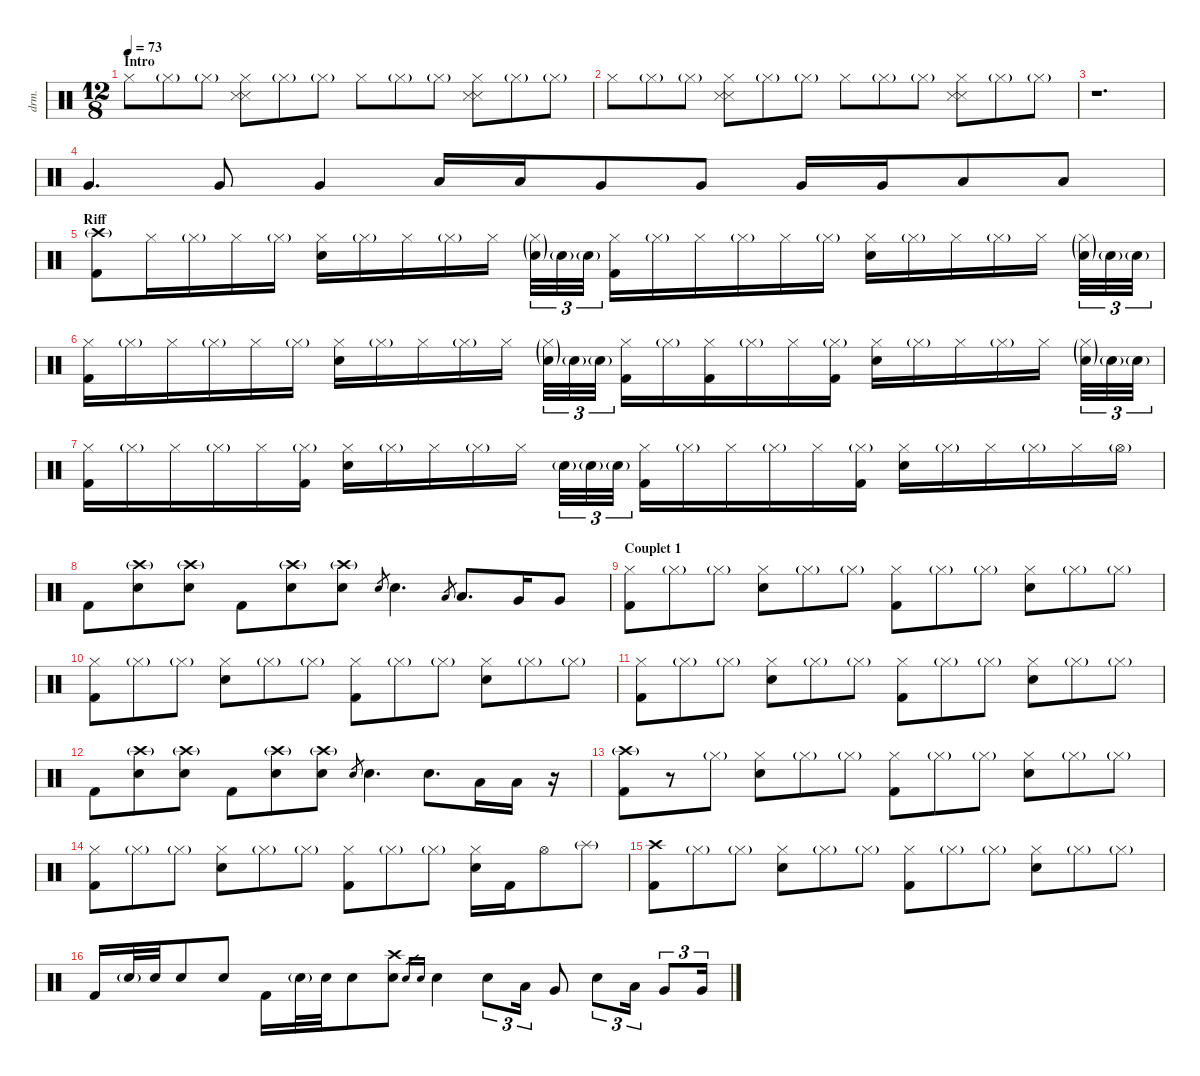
\defaultSystemsLayout 4
\hideDynamics
\bracketExtendMode nobrackets
\otherSystemsTrackNameOrientation horizontal
\track ("Drums" "drm.") {instrument percussion}
\staff {score}
\articulation defaults
\ts (12 8)
\section ("" "Intro")
\tempo 73
\clef neutral
\ks c "Hi-Hat (closed)".8{dy f beam Down} "Hi-Hat (closed)"{g}.8{beam Down} "Hi-Hat (closed)"{g}.8{beam Down}
("Hi-Hat (closed)" "Snare (side stick) 3" "Metronome (hit)").8{beam Down} "Hi-Hat (closed)"{g}.8{beam Down} "Hi-Hat (closed)"{g}.8{beam Down} "Hi-Hat (closed)".8{beam Down} "Hi-Hat (closed)"{g}.8{beam Down} "Hi-Hat (closed)"{g}.8{beam Down} ("Hi-Hat (closed)" "Snare (side stick) 3" "Metronome (hit)").8{beam Down} "Hi-Hat (closed)"{g}.8{beam Down} "Hi-Hat (closed)"{g}.8{beam Down} |
"Hi-Hat (closed)".8{beam Down} "Hi-Hat (closed)"{g}.8{beam Down} "Hi-Hat (closed)"{g}.8{beam Down} ("Hi-Hat (closed)" "Snare (side stick) 3" "Metronome (hit)").8{beam Down} "Hi-Hat (closed)"{g}.8{beam Down} "Hi-Hat (closed)"{g}.8{beam Down} "Hi-Hat (closed)".8{beam Down} "Hi-Hat (closed)"{g}.8{beam Down} "Hi-Hat (closed)"{g}.8{beam Down} ("Hi-Hat (closed)" "Snare (side stick) 3" "Metronome (hit)").8{beam Down} "Hi-Hat (closed)"{g}.8{beam Down} "Hi-Hat (closed)"{g}.8{beam Down} |
r.1{d beam Down} |
"Very Low Tom (hit)".4{d beam Up} "Very Low Tom (hit)".8{beam Up} "Very Low Tom (hit)".4{beam Up} "Low Tom (hit)".16{beam Up} "Low Tom (hit)".16{beam Up} "Very Low Tom (hit)".8{beam Up} "Very Low Tom (hit)".8{beam Up} "Very Low Tom (hit)".16{beam Up} "Very Low Tom (hit)".16{beam Up} "Low Floor Tom (hit)".8{beam Up} "Low Floor Tom (hit)".8{beam Up} |
\section ("" "Riff")
("Crash high (hit)"{g} "Kick (hit) 2").8{beam Down} "Hi-Hat (closed)".16{beam Down} "Hi-Hat (closed)"{g}.16{beam Down} "Hi-Hat (closed)".16{beam Down} "Hi-Hat (closed)"{g}.16{beam Down} ("Hi-Hat (closed)" "Snare (hit) 2").16{beam Down} "Hi-Hat (closed)"{g}.16{beam Down} "Hi-Hat (closed)".16{beam Down} "Hi-Hat (closed)"{g}.16{beam Down} "Hi-Hat (closed)".16{beam Down} ("Hi-Hat (closed)"{g} "Snare (hit) 2"{g}).32{tu (3 2) beam Down} "Snare (hit) 2"{g}.32{tu (3 2) beam Down} "Snare (hit) 2"{g}.32{tu (3 2) beam Down} ("Hi-Hat (closed)" "Kick (hit) 2").16{beam Down} "Hi-Hat (closed)"{g}.16{beam Down} "Hi-Hat (closed)".16{beam Down} "Hi-Hat (closed)"{g}.16{beam Down} "Hi-Hat (closed)".16{beam Down} "Hi-Hat (closed)"{g}.16{beam Down} ("Hi-Hat (closed)" "Snare (hit) 2").16{beam Down} "Hi-Hat (closed)"{g}.16{beam Down} "Hi-Hat (closed)".16{beam Down} "Hi-Hat (closed)"{g}.16{beam Down} "Hi-Hat (closed)".16{beam Down} ("Hi-Hat (closed)"{g} "Snare (hit) 2"{g}).32{tu (3 2) beam Down} "Snare (hit) 2"{g}.32{tu (3 2) beam Down} "Snare (hit) 2"{g}.32{tu (3 2) beam Down} |
("Hi-Hat (closed)" "Kick (hit) 2").16{beam Down} "Hi-Hat (closed)"{g}.16{beam Down} "Hi-Hat (closed)".16{beam Down} "Hi-Hat (closed)"{g}.16{beam Down} "Hi-Hat (closed)".16{beam Down} "Hi-Hat (closed)"{g}.16{beam Down} ("Hi-Hat (closed)" "Snare (hit) 2").16{beam Down} "Hi-Hat (closed)"{g}.16{beam Down} "Hi-Hat (closed)".16{beam Down} "Hi-Hat (closed)"{g}.16{beam Down} "Hi-Hat (closed)".16{beam Down} ("Hi-Hat (closed)"{g} "Snare (hit) 2"{g}).32{tu (3 2) beam Down} "Snare (hit) 2"{g}.32{tu (3 2) beam Down} "Snare (hit) 2"{g}.32{tu (3 2) beam Down} ("Hi-Hat (closed)" "Kick (hit) 2").16{beam Down} "Hi-Hat (closed)"{g}.16{beam Down} ("Hi-Hat (closed)" "Kick (hit) 2").16{beam Down} "Hi-Hat (closed)"{g}.16{beam Down} "Hi-Hat (closed)".16{beam Down} ("Hi-Hat (closed)"{g} "Kick (hit) 2").16{beam Down} ("Hi-Hat (closed)" "Snare (hit) 2").16{beam Down} "Hi-Hat (closed)"{g}.16{beam Down} "Hi-Hat (closed)".16{beam Down} "Hi-Hat (closed)"{g}.16{beam Down} "Hi-Hat (closed)".16{beam Down} ("Hi-Hat (closed)"{g} "Snare (hit) 2"{g}).32{tu (3 2) beam Down} "Snare (hit) 2"{g}.32{tu (3 2) beam Down} "Snare (hit) 2"{g}.32{tu (3 2) beam Down} |
("Hi-Hat (closed)" "Kick (hit) 2").16{beam Down} "Hi-Hat (closed)"{g}.16{beam Down} "Hi-Hat (closed)".16{beam Down} "Hi-Hat (closed)"{g}.16{beam Down} "Hi-Hat (closed)".16{beam Down} ("Hi-Hat (closed)"{g} "Kick (hit) 2").16{beam Down} ("Hi-Hat (closed)" "Snare (hit) 2").16{beam Down} "Hi-Hat (closed)"{g}.16{beam Down} "Hi-Hat (closed)".16{beam Down} "Hi-Hat (closed)"{g}.16{beam Down} "Hi-Hat (closed)".16{beam Down} "Snare (hit) 2"{g}.32{tu (3 2) beam Down} "Snare (hit) 2"{g}.32{tu (3 2) beam Down} "Snare (hit) 2"{g}.32{tu (3 2) beam Down} ("Hi-Hat (closed)" "Kick (hit) 2").16{beam Down} "Hi-Hat (closed)"{g}.16{beam Down} "Hi-Hat (closed)".16{beam Down} "Hi-Hat (closed)"{g}.16{beam Down} "Hi-Hat (closed)".16{beam Down} ("Hi-Hat (closed)"{g} "Kick (hit) 2").16{beam Down} ("Hi-Hat (closed)" "Snare (hit) 2").16{beam Down} "Hi-Hat (closed)"{g}.16{beam Down} "Hi-Hat (closed)".16{beam Down} "Hi-Hat (closed)"{g}.16{beam Down} "Hi-Hat (closed)".16{beam Down} "Hi-Hat (open)"{g}.16{beam Down} |
"Kick (hit) 2".8{beam Down} ("Crash high (hit)"{g} "Snare (hit) 2").8{beam Down} ("Crash high (hit)"{g} "Snare (hit) 2").8{beam Down} "Kick (hit) 2".8{beam Down} ("Crash high (hit)"{g} "Snare (hit) 2").8{beam Down} ("Crash high (hit)"{g} "Snare (hit) 2").8{beam Down} "Electric Snare (hit)".8{gr dy mf beam Up} "Snare (hit) 2".4{d dy f beam Down} "Low Tom (hit)".8{gr dy mf beam Up} "Low Tom (hit)".8{d dy f beam Up} "Very Low Tom (hit)".16{beam Up} "Very Low Tom (hit)".8{beam Up} |
\section ("" "Couplet 1")
("Hi-Hat (closed)" "Kick (hit) 2").8{beam Down} "Hi-Hat (closed)"{g}.8{beam Down} "Hi-Hat (closed)"{g}.8{beam Down} ("Hi-Hat (closed)" "Snare (hit) 2").8{beam Down} "Hi-Hat (closed)"{g}.8{beam Down} "Hi-Hat (closed)"{g}.8{beam Down} ("Hi-Hat (closed)" "Kick (hit) 2").8{beam Down} "Hi-Hat (closed)"{g}.8{beam Down} "Hi-Hat (closed)"{g}.8{beam Down} ("Hi-Hat (closed)" "Snare (hit) 2").8{beam Down} "Hi-Hat (closed)"{g}.8{beam Down} "Hi-Hat (closed)"{g}.8{beam Down} |
("Hi-Hat (closed)" "Kick (hit) 2").8{beam Down} "Hi-Hat (closed)"{g}.8{beam Down} "Hi-Hat (closed)"{g}.8{beam Down} ("Hi-Hat (closed)" "Snare (hit) 2").8{beam Down} "Hi-Hat (closed)"{g}.8{beam Down} "Hi-Hat (closed)"{g}.8{beam Down} ("Hi-Hat (closed)" "Kick (hit) 2").8{beam Down} "Hi-Hat (closed)"{g}.8{beam Down} "Hi-Hat (closed)"{g}.8{beam Down} ("Hi-Hat (closed)" "Snare (hit) 2").8{beam Down} "Hi-Hat (closed)"{g}.8{beam Down} "Hi-Hat (closed)"{g}.8{beam Down} |
("Hi-Hat (closed)" "Kick (hit) 2").8{beam Down} "Hi-Hat (closed)"{g}.8{beam Down} "Hi-Hat (closed)"{g}.8{beam Down} ("Hi-Hat (closed)" "Snare (hit) 2").8{beam Down} "Hi-Hat (closed)"{g}.8{beam Down} "Hi-Hat (closed)"{g}.8{beam Down} ("Hi-Hat (closed)" "Kick (hit) 2").8{beam Down} "Hi-Hat (closed)"{g}.8{beam Down} "Hi-Hat (closed)"{g}.8{beam Down} ("Hi-Hat (closed)" "Snare (hit) 2").8{beam Down} "Hi-Hat (closed)"{g}.8{beam Down} "Hi-Hat (closed)"{g}.8{beam Down} |
"Kick (hit) 2".8{beam Down} ("Snare (hit) 2" "Crash high (hit)"{g}).8{beam Down} ("Snare (hit) 2" "Crash high (hit)"{g}).8{beam Down} "Kick (hit) 2".8{beam Down} ("Snare (hit) 2" "Crash high (hit)"{g}).8{beam Down} ("Snare (hit) 2" "Crash high (hit)"{g}).8{beam Down} "Electric Snare (hit)".8{gr dy mf beam Up} "Snare (hit) 2".4{d dy f beam Down} "Snare (hit) 2".8{d beam Down} "Low Tom (hit)".16{beam Down} "Low Tom (hit)".16{beam Down} r.16{beam Down} |
("Crash high (hit)"{g} "Kick (hit) 2").8{beam Down} r.8{beam Down} "Hi-Hat (closed)"{g}.8{beam Down} ("Hi-Hat (closed)" "Snare (hit) 2").8{beam Down} "Hi-Hat (closed)"{g}.8{beam Down} "Hi-Hat (closed)"{g}.8{beam Down} ("Hi-Hat (closed)" "Kick (hit) 2").8{beam Down} "Hi-Hat (closed)"{g}.8{beam Down} "Hi-Hat (closed)"{g}.8{beam Down} ("Hi-Hat (closed)" "Snare (hit) 2").8{beam Down} "Hi-Hat (closed)"{g}.8{beam Down} "Hi-Hat (closed)"{g}.8{beam Down} |
("Hi-Hat (closed)" "Kick (hit) 2").8{beam Down} "Hi-Hat (closed)"{g}.8{beam Down} "Hi-Hat (closed)"{g}.8{beam Down} ("Hi-Hat (closed)" "Snare (hit) 2").8{beam Down} "Hi-Hat (closed)"{g}.8{beam Down} "Hi-Hat (closed)"{g}.8{beam Down} ("Hi-Hat (closed)" "Kick (hit) 2").8{beam Down} "Hi-Hat (closed)"{g}.8{beam Down} "Hi-Hat (closed)"{g}.8{beam Down} ("Hi-Hat (closed)" "Snare (hit) 2").16{beam Down} "Kick (hit) 2".16{beam Down} "Hi-Hat (open)".8{beam Down} "Splash (hit)"{g}.8{beam Down} |
("Crash high (hit)" "Kick (hit) 2").8{beam Down} "Hi-Hat (closed)"{g}.8{beam Down} "Hi-Hat (closed)"{g}.8{beam Down} ("Hi-Hat (closed)" "Snare (hit) 2").8{beam Down} "Hi-Hat (closed)"{g}.8{beam Down} "Hi-Hat (closed)"{g}.8{beam Down} ("Hi-Hat (closed)" "Kick (hit) 2").8{beam Down} "Hi-Hat (closed)"{g}.8{beam Down} "Hi-Hat (closed)"{g}.8{beam Down} ("Hi-Hat (closed)" "Snare (hit) 2").8{beam Down} "Hi-Hat (closed)"{g}.8{beam Down} "Hi-Hat (closed)"{g}.8{beam Down} |
"Kick (hit) 2".16{beam Up} "Snare (hit) 2"{g}.32{beam Up} "Snare (hit) 2".32{beam Up} "Snare (hit) 2".8{beam Up} "Snare (hit) 2".8{beam Up} "Kick (hit) 2".16{beam Down} "Snare (hit) 2"{g}.32{beam Down} "Snare (hit) 2".32{beam Down} "Snare (hit) 2".8{beam Down} ("Crash high (hit)" "Snare (hit) 2").8{beam Down} "Electric Snare (hit)".16{gr dy mf beam Up} "Electric Snare (hit)".16{gr beam Up} "Snare (hit) 2".4{dy f beam Down} "Snare (hit) 2".8{tu (3 2) beam Down} "Low Tom (hit)".16{tu (3 2) beam Down} "Very Low Tom (hit)".8{beam Up} "Snare (hit) 2".8{tu (3 2) beam Down} "Low Tom (hit)".16{tu (3 2) beam Down} "Very Low Tom (hit)".8{tu (3 2) beam Up} "Very Low Tom (hit)".16{tu (3 2) beam Up}
